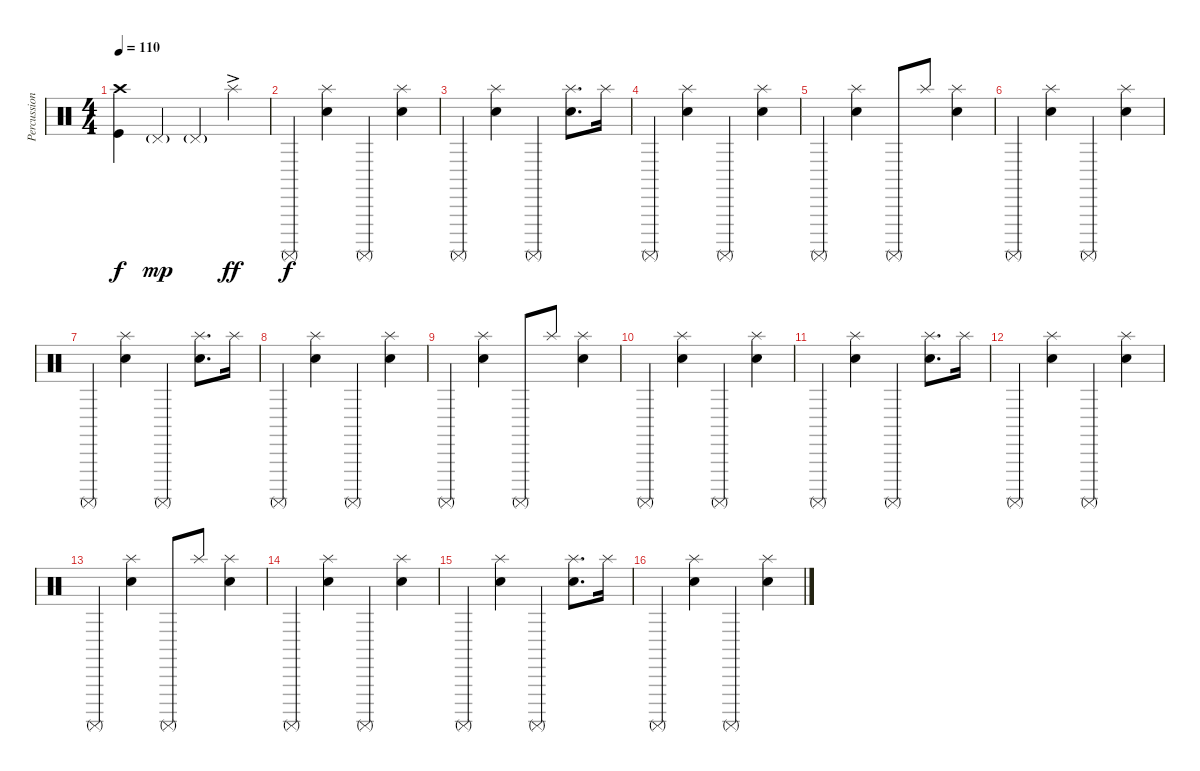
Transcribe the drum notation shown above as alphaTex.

\track ("Percussions" "Percussion") {instrument percussion}
\staff {score}
\articulation defaults
\ts (4 4)
\tempo 110
\clef neutral
\ks c
("Crash high (hit)" "Kick (hit)").4{dy f} "Pedal Hi-Hat (hit)"{g}.4{dy mp} "Pedal Hi-Hat (hit)"{g}.4 "Splash (hit)"{ac}.4{dy ff} |
"Surdo (mute)".4{dy f} ("Splash (hit)" "Snare (hit) 2").4 "Surdo (mute)".4 ("Splash (hit)" "Snare (hit) 2").4 |
"Surdo (mute)".4 ("Splash (hit)" "Snare (hit) 2").4 "Surdo (mute)".4 ("Splash (hit)" "Snare (hit) 2").8{d} "Splash (hit)".16 |
"Surdo (mute)".4 ("Splash (hit)" "Snare (hit) 2").4 "Surdo (mute)".4 ("Splash (hit)" "Snare (hit) 2").4 |
"Surdo (mute)".4 ("Splash (hit)" "Snare (hit) 2").4 "Surdo (mute)".8 "Splash (hit)".8 ("Splash (hit)" "Snare (hit) 2").4 |
"Surdo (mute)".4 ("Splash (hit)" "Snare (hit) 2").4 "Surdo (mute)".4 ("Splash (hit)" "Snare (hit) 2").4 |
"Surdo (mute)".4 ("Splash (hit)" "Snare (hit) 2").4 "Surdo (mute)".4 ("Splash (hit)" "Snare (hit) 2").8{d} "Splash (hit)".16 |
"Surdo (mute)".4 ("Splash (hit)" "Snare (hit) 2").4 "Surdo (mute)".4 ("Splash (hit)" "Snare (hit) 2").4 |
"Surdo (mute)".4 ("Splash (hit)" "Snare (hit) 2").4 "Surdo (mute)".8 "Splash (hit)".8 ("Splash (hit)" "Snare (hit) 2").4 |
"Surdo (mute)".4 ("Splash (hit)" "Snare (hit) 2").4 "Surdo (mute)".4 ("Splash (hit)" "Snare (hit) 2").4 |
"Surdo (mute)".4 ("Splash (hit)" "Snare (hit) 2").4 "Surdo (mute)".4 ("Splash (hit)" "Snare (hit) 2").8{d} "Splash (hit)".16 |
"Surdo (mute)".4 ("Splash (hit)" "Snare (hit) 2").4 "Surdo (mute)".4 ("Splash (hit)" "Snare (hit) 2").4 |
"Surdo (mute)".4 ("Splash (hit)" "Snare (hit) 2").4 "Surdo (mute)".8 "Splash (hit)".8 ("Splash (hit)" "Snare (hit) 2").4 |
"Surdo (mute)".4 ("Splash (hit)" "Snare (hit) 2").4 "Surdo (mute)".4 ("Splash (hit)" "Snare (hit) 2").4 |
"Surdo (mute)".4 ("Splash (hit)" "Snare (hit) 2").4 "Surdo (mute)".4 ("Splash (hit)" "Snare (hit) 2").8{d} "Splash (hit)".16 |
"Surdo (mute)".4 ("Splash (hit)" "Snare (hit) 2").4 "Surdo (mute)".4 ("Splash (hit)" "Snare (hit) 2").4
